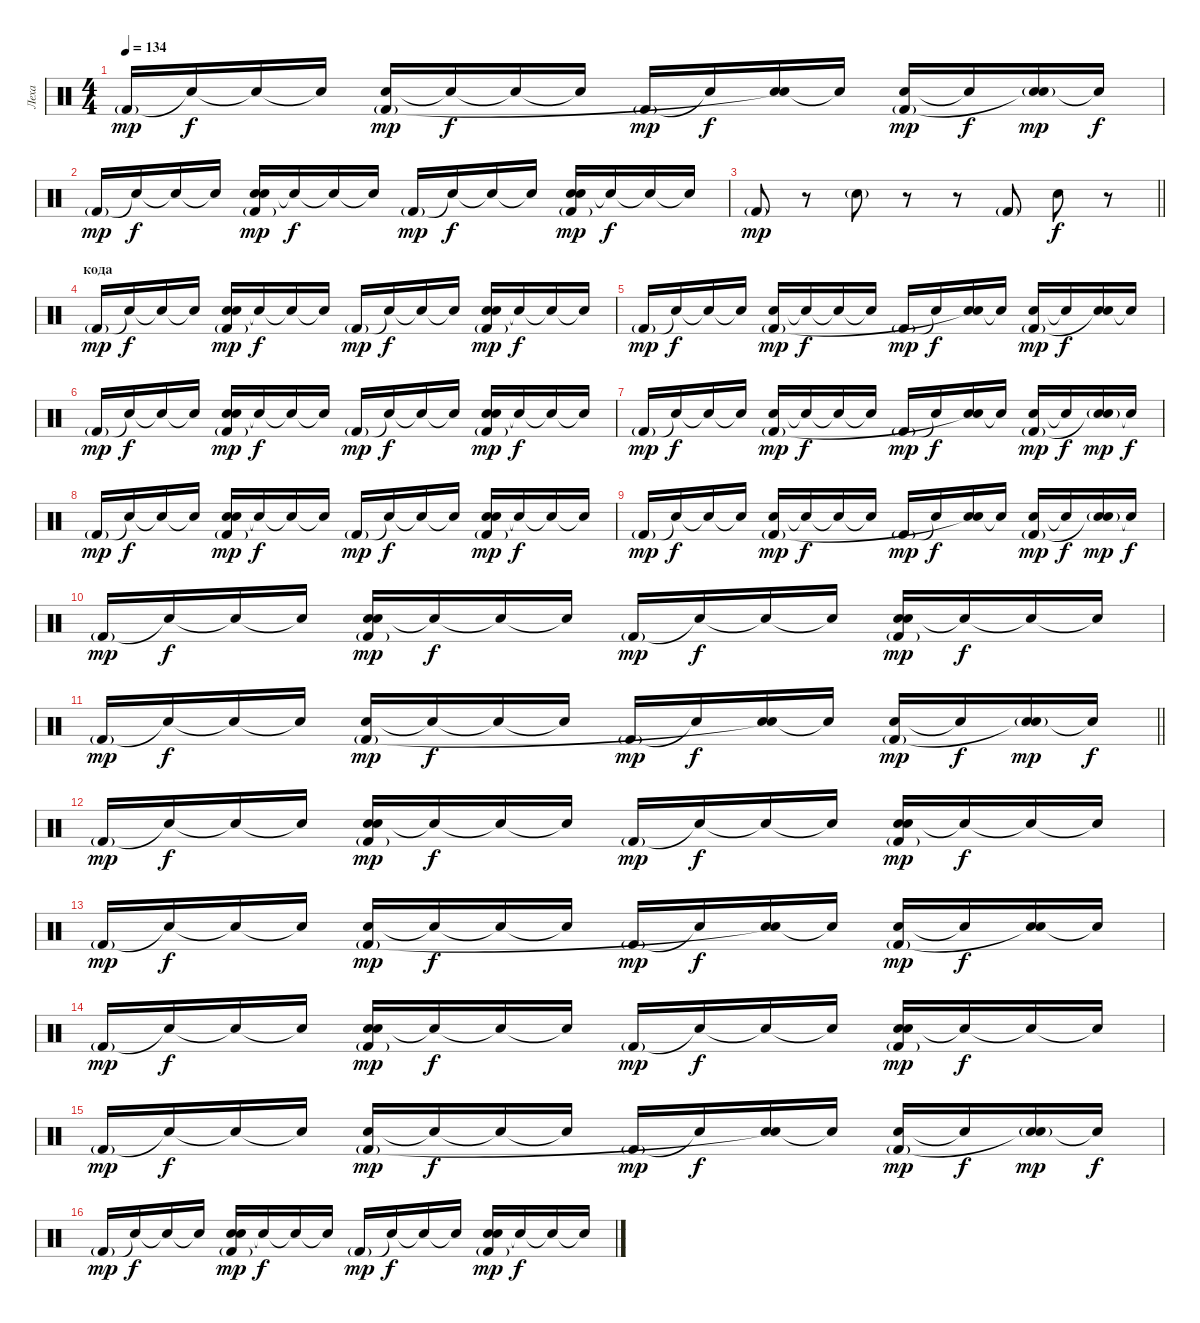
\track ("Леха" "Леха") {instrument percussion}
\staff {score}
\articulation defaults
\ts (4 4)
\tempo 134
\clef neutral
\ks c "Kick (hit) 2"{g}.16{dy mp} "Snare (hit)"{t}.16{dy f} "Snare (hit)"{t}.16 "Snare (hit)"{t}.16
("Hand Clap (hit)" "Kick (hit) 2"{g}).16{dy mp} "Snare (hit)"{t}.16{dy f} "Snare (hit)"{t}.16 "Snare (hit)"{t}.16 "Kick (hit) 2"{g}.16{dy mp} "Snare (hit)"{t}.16{dy f} ("Hand Clap (hit)" "Snare (hit)"{t}).16 "Snare (hit)"{t}.16 ("Hand Clap (hit)" "Kick (hit) 2"{g}).16{dy mp} "Snare (hit)"{t}.16{dy f} ("Hand Clap (hit)"{g} "Snare (hit)"{t}).16{dy mp} "Snare (hit)"{t}.16{dy f} |
"Kick (hit) 2"{g}.16{dy mp} "Snare (hit)"{t}.16{dy f} "Snare (hit)"{t}.16 "Snare (hit)"{t}.16 ("Hand Clap (hit)" "Hand Clap (hit)" "Kick (hit) 2"{g}).16{dy mp} "Snare (hit)"{t}.16{dy f} "Snare (hit)"{t}.16 "Snare (hit)"{t}.16 "Kick (hit) 2"{g}.16{dy mp} "Snare (hit)"{t}.16{dy f} "Snare (hit)"{t}.16 "Snare (hit)"{t}.16 ("Hand Clap (hit)" "Hand Clap (hit)" "Kick (hit) 2"{g}).16{dy mp} "Snare (hit)"{t}.16{dy f} "Snare (hit)"{t}.16 "Snare (hit)"{t}.16 |
\barLineRight lightlight "Kick (hit) 2"{g}.8{dy mp}
r.8 "Hand Clap (hit)"{g}.8 r.8 r.8 "Kick (hit) 2"{g}.8 "Hand Clap (hit)".8{dy f} r.8 |
\section ("" "кода")
"Kick (hit) 2"{g}.16{dy mp} "Snare (hit)"{t}.16{dy f} "Snare (hit)"{t}.16 "Snare (hit)"{t}.16 ("Hand Clap (hit)" "Hand Clap (hit)" "Kick (hit) 2"{g}).16{dy mp} "Snare (hit)"{t}.16{dy f} "Snare (hit)"{t}.16 "Snare (hit)"{t}.16 "Kick (hit) 2"{g}.16{dy mp} "Snare (hit)"{t}.16{dy f} "Snare (hit)"{t}.16 "Snare (hit)"{t}.16 ("Hand Clap (hit)" "Hand Clap (hit)" "Kick (hit) 2"{g}).16{dy mp} "Snare (hit)"{t}.16{dy f} "Snare (hit)"{t}.16 "Snare (hit)"{t}.16 |
"Kick (hit) 2"{g}.16{dy mp} "Snare (hit)"{t}.16{dy f} "Snare (hit)"{t}.16 "Snare (hit)"{t}.16 ("Hand Clap (hit)" "Kick (hit) 2"{g}).16{dy mp} "Snare (hit)"{t}.16{dy f} "Snare (hit)"{t}.16 "Snare (hit)"{t}.16 "Kick (hit) 2"{g}.16{dy mp} "Snare (hit)"{t}.16{dy f} ("Hand Clap (hit)" "Snare (hit)"{t}).16 "Snare (hit)"{t}.16 ("Hand Clap (hit)" "Kick (hit) 2"{g}).16{dy mp} "Snare (hit)"{t}.16{dy f} ("Hand Clap (hit)" "Snare (hit)"{t}).16 "Snare (hit)"{t}.16 |
"Kick (hit) 2"{g}.16{dy mp} "Snare (hit)"{t}.16{dy f} "Snare (hit)"{t}.16 "Snare (hit)"{t}.16 ("Hand Clap (hit)" "Hand Clap (hit)" "Kick (hit) 2"{g}).16{dy mp} "Snare (hit)"{t}.16{dy f} "Snare (hit)"{t}.16 "Snare (hit)"{t}.16 "Kick (hit) 2"{g}.16{dy mp} "Snare (hit)"{t}.16{dy f} "Snare (hit)"{t}.16 "Snare (hit)"{t}.16 ("Hand Clap (hit)" "Hand Clap (hit)" "Kick (hit) 2"{g}).16{dy mp} "Snare (hit)"{t}.16{dy f} "Snare (hit)"{t}.16 "Snare (hit)"{t}.16 |
"Kick (hit) 2"{g}.16{dy mp} "Snare (hit)"{t}.16{dy f} "Snare (hit)"{t}.16 "Snare (hit)"{t}.16 ("Hand Clap (hit)" "Kick (hit) 2"{g}).16{dy mp} "Snare (hit)"{t}.16{dy f} "Snare (hit)"{t}.16 "Snare (hit)"{t}.16 "Kick (hit) 2"{g}.16{dy mp} "Snare (hit)"{t}.16{dy f} ("Hand Clap (hit)" "Snare (hit)"{t}).16 "Snare (hit)"{t}.16 ("Hand Clap (hit)" "Kick (hit) 2"{g}).16{dy mp} "Snare (hit)"{t}.16{dy f} ("Hand Clap (hit)"{g} "Snare (hit)"{t}).16{dy mp} "Snare (hit)"{t}.16{dy f} |
"Kick (hit) 2"{g}.16{dy mp} "Snare (hit)"{t}.16{dy f} "Snare (hit)"{t}.16 "Snare (hit)"{t}.16 ("Hand Clap (hit)" "Hand Clap (hit)" "Kick (hit) 2"{g}).16{dy mp} "Snare (hit)"{t}.16{dy f} "Snare (hit)"{t}.16 "Snare (hit)"{t}.16 "Kick (hit) 2"{g}.16{dy mp} "Snare (hit)"{t}.16{dy f} "Snare (hit)"{t}.16 "Snare (hit)"{t}.16 ("Hand Clap (hit)" "Hand Clap (hit)" "Kick (hit) 2"{g}).16{dy mp} "Snare (hit)"{t}.16{dy f} "Snare (hit)"{t}.16 "Snare (hit)"{t}.16 |
"Kick (hit) 2"{g}.16{dy mp} "Snare (hit)"{t}.16{dy f} "Snare (hit)"{t}.16 "Snare (hit)"{t}.16 ("Hand Clap (hit)" "Kick (hit) 2"{g}).16{dy mp} "Snare (hit)"{t}.16{dy f} "Snare (hit)"{t}.16 "Snare (hit)"{t}.16 "Kick (hit) 2"{g}.16{dy mp} "Snare (hit)"{t}.16{dy f} ("Hand Clap (hit)" "Snare (hit)"{t}).16 "Snare (hit)"{t}.16 ("Hand Clap (hit)" "Kick (hit) 2"{g}).16{dy mp} "Snare (hit)"{t}.16{dy f} ("Hand Clap (hit)"{g} "Snare (hit)"{t}).16{dy mp} "Snare (hit)"{t}.16{dy f} |
"Kick (hit) 2"{g}.16{dy mp} "Snare (hit)"{t}.16{dy f} "Snare (hit)"{t}.16 "Snare (hit)"{t}.16 ("Hand Clap (hit)" "Hand Clap (hit)" "Kick (hit) 2"{g}).16{dy mp} "Snare (hit)"{t}.16{dy f} "Snare (hit)"{t}.16 "Snare (hit)"{t}.16 "Kick (hit) 2"{g}.16{dy mp} "Snare (hit)"{t}.16{dy f} "Snare (hit)"{t}.16 "Snare (hit)"{t}.16 ("Hand Clap (hit)" "Hand Clap (hit)" "Kick (hit) 2"{g}).16{dy mp} "Snare (hit)"{t}.16{dy f} "Snare (hit)"{t}.16 "Snare (hit)"{t}.16 |
\barLineRight lightlight "Kick (hit) 2"{g}.16{dy mp} "Snare (hit)"{t}.16{dy f} "Snare (hit)"{t}.16 "Snare (hit)"{t}.16
("Hand Clap (hit)" "Kick (hit) 2"{g}).16{dy mp} "Snare (hit)"{t}.16{dy f} "Snare (hit)"{t}.16 "Snare (hit)"{t}.16 "Kick (hit) 2"{g}.16{dy mp} "Snare (hit)"{t}.16{dy f} ("Hand Clap (hit)" "Snare (hit)"{t}).16 "Snare (hit)"{t}.16 ("Hand Clap (hit)" "Kick (hit) 2"{g}).16{dy mp} "Snare (hit)"{t}.16{dy f} ("Hand Clap (hit)"{g} "Snare (hit)"{t}).16{dy mp} "Snare (hit)"{t}.16{dy f} |
"Kick (hit) 2"{g}.16{dy mp} "Snare (hit)"{t}.16{dy f} "Snare (hit)"{t}.16 "Snare (hit)"{t}.16 ("Hand Clap (hit)" "Hand Clap (hit)" "Kick (hit) 2"{g}).16{dy mp} "Snare (hit)"{t}.16{dy f} "Snare (hit)"{t}.16 "Snare (hit)"{t}.16 "Kick (hit) 2"{g}.16{dy mp} "Snare (hit)"{t}.16{dy f} "Snare (hit)"{t}.16 "Snare (hit)"{t}.16 ("Hand Clap (hit)" "Hand Clap (hit)" "Kick (hit) 2"{g}).16{dy mp} "Snare (hit)"{t}.16{dy f} "Snare (hit)"{t}.16 "Snare (hit)"{t}.16 |
"Kick (hit) 2"{g}.16{dy mp} "Snare (hit)"{t}.16{dy f} "Snare (hit)"{t}.16 "Snare (hit)"{t}.16 ("Hand Clap (hit)" "Kick (hit) 2"{g}).16{dy mp} "Snare (hit)"{t}.16{dy f} "Snare (hit)"{t}.16 "Snare (hit)"{t}.16 "Kick (hit) 2"{g}.16{dy mp} "Snare (hit)"{t}.16{dy f} ("Hand Clap (hit)" "Snare (hit)"{t}).16 "Snare (hit)"{t}.16 ("Hand Clap (hit)" "Kick (hit) 2"{g}).16{dy mp} "Snare (hit)"{t}.16{dy f} ("Hand Clap (hit)" "Snare (hit)"{t}).16 "Snare (hit)"{t}.16 |
"Kick (hit) 2"{g}.16{dy mp} "Snare (hit)"{t}.16{dy f} "Snare (hit)"{t}.16 "Snare (hit)"{t}.16 ("Hand Clap (hit)" "Hand Clap (hit)" "Kick (hit) 2"{g}).16{dy mp} "Snare (hit)"{t}.16{dy f} "Snare (hit)"{t}.16 "Snare (hit)"{t}.16 "Kick (hit) 2"{g}.16{dy mp} "Snare (hit)"{t}.16{dy f} "Snare (hit)"{t}.16 "Snare (hit)"{t}.16 ("Hand Clap (hit)" "Hand Clap (hit)" "Kick (hit) 2"{g}).16{dy mp} "Snare (hit)"{t}.16{dy f} "Snare (hit)"{t}.16 "Snare (hit)"{t}.16 |
"Kick (hit) 2"{g}.16{dy mp} "Snare (hit)"{t}.16{dy f} "Snare (hit)"{t}.16 "Snare (hit)"{t}.16 ("Hand Clap (hit)" "Kick (hit) 2"{g}).16{dy mp} "Snare (hit)"{t}.16{dy f} "Snare (hit)"{t}.16 "Snare (hit)"{t}.16 "Kick (hit) 2"{g}.16{dy mp} "Snare (hit)"{t}.16{dy f} ("Hand Clap (hit)" "Snare (hit)"{t}).16 "Snare (hit)"{t}.16 ("Hand Clap (hit)" "Kick (hit) 2"{g}).16{dy mp} "Snare (hit)"{t}.16{dy f} ("Hand Clap (hit)"{g} "Snare (hit)"{t}).16{dy mp} "Snare (hit)"{t}.16{dy f} |
"Kick (hit) 2"{g}.16{dy mp} "Snare (hit)"{t}.16{dy f} "Snare (hit)"{t}.16 "Snare (hit)"{t}.16 ("Hand Clap (hit)" "Hand Clap (hit)" "Kick (hit) 2"{g}).16{dy mp} "Snare (hit)"{t}.16{dy f} "Snare (hit)"{t}.16 "Snare (hit)"{t}.16 "Kick (hit) 2"{g}.16{dy mp} "Snare (hit)"{t}.16{dy f} "Snare (hit)"{t}.16 "Snare (hit)"{t}.16 ("Hand Clap (hit)" "Hand Clap (hit)" "Kick (hit) 2"{g}).16{dy mp} "Snare (hit)"{t}.16{dy f} "Snare (hit)"{t}.16 "Snare (hit)"{t}.16
